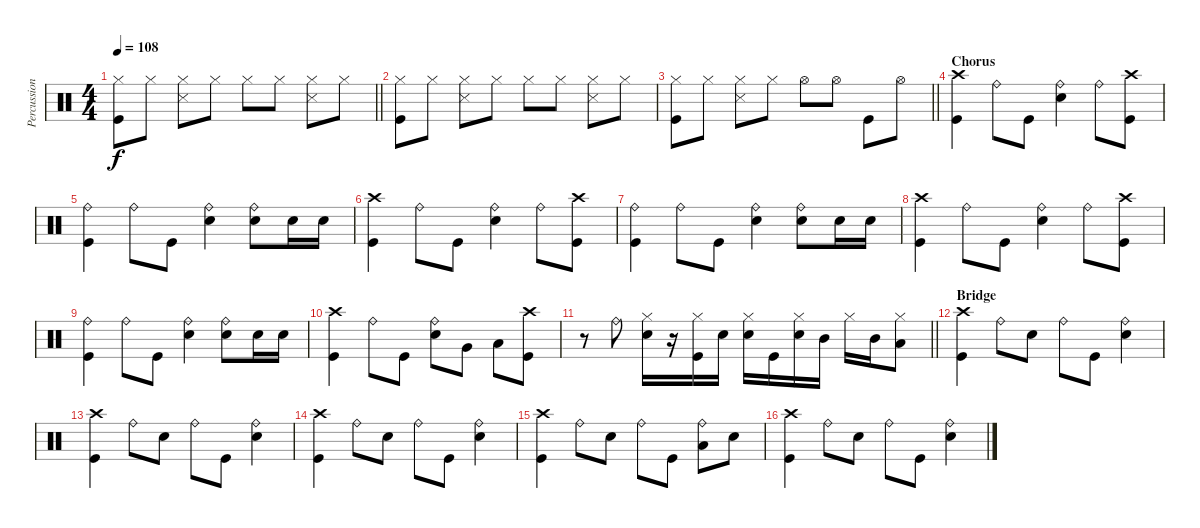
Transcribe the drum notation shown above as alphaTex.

\track ("Percussion" "Percussion") {instrument percussion}
\staff {score}
\articulation defaults
\ts (4 4)
\tempo 108
\clef neutral
\barLineRight lightlight
\ks c
("Hi-Hat (closed)" "Kick (hit)").8{dy f} "Hi-Hat (closed)".8 ("Hi-Hat (closed)" "Snare (side stick) 3").8 "Hi-Hat (closed)".8 "Hi-Hat (closed)".8 "Hi-Hat (closed)".8 ("Hi-Hat (closed)" "Snare (side stick) 3").8 "Hi-Hat (closed)".8 |
("Hi-Hat (closed)" "Kick (hit)").8 "Hi-Hat (closed)".8 ("Hi-Hat (closed)" "Snare (side stick) 3").8 "Hi-Hat (closed)".8 "Hi-Hat (closed)".8 "Hi-Hat (closed)".8 ("Hi-Hat (closed)" "Snare (side stick) 3").8 "Hi-Hat (closed)".8 |
\barLineRight lightlight
("Hi-Hat (closed)" "Kick (hit)").8 "Hi-Hat (closed)".8 ("Hi-Hat (closed)" "Snare (side stick) 3").8 "Hi-Hat (closed)".8 "Hi-Hat (open)".8 "Hi-Hat (open)".8 "Kick (hit)".8 "Hi-Hat (open)".8 |
\section ("" "Chorus")
("Crash high (hit)" "Kick (hit)").4 "Ride (bell)".8 "Kick (hit)".8 ("Ride (bell)" "Snare (hit) 2").4 "Ride (bell)".8 ("Crash high (hit)" "Kick (hit)").8 |
("Ride (bell)" "Kick (hit)").4 "Ride (bell)".8 "Kick (hit)".8 ("Ride (bell)" "Snare (hit) 2").4 ("Ride (bell)" "Snare (hit) 2").8 "Snare (hit) 2".16 "Snare (hit) 2".16 |
("Crash high (hit)" "Kick (hit)").4 "Ride (bell)".8 "Kick (hit)".8 ("Ride (bell)" "Snare (hit) 2").4 "Ride (bell)".8 ("Crash high (hit)" "Kick (hit)").8 |
("Ride (bell)" "Kick (hit)").4 "Ride (bell)".8 "Kick (hit)".8 ("Ride (bell)" "Snare (hit) 2").4 ("Ride (bell)" "Snare (hit) 2").8 "Snare (hit) 2".16 "Snare (hit) 2".16 |
("Crash high (hit)" "Kick (hit)").4 "Ride (bell)".8 "Kick (hit)".8 ("Ride (bell)" "Snare (hit) 2").4 "Ride (bell)".8 ("Crash high (hit)" "Kick (hit)").8 |
("Ride (bell)" "Kick (hit)").4 "Ride (bell)".8 "Kick (hit)".8 ("Ride (bell)" "Snare (hit) 2").4 ("Ride (bell)" "Snare (hit) 2").8 "Snare (hit) 2".16 "Snare (hit) 2".16 |
("Crash high (hit)" "Kick (hit)").4 "Ride (bell)".8 "Kick (hit)".8 ("Ride (bell)" "Snare (hit) 2").8 "Very Low Tom (hit)".8 "Low Floor Tom (hit)".8 ("Crash high (hit)" "Kick (hit)").8 |
\barLineRight lightlight
r.8 "Ride (bell)".8 ("Hi-Hat (closed)" "Snare (hit) 2").16 r.16 ("Hi-Hat (closed)" "Kick (hit)").16 "Snare (hit) 2".16 ("Hi-Hat (closed)" "Snare (hit) 2").16 "Kick (hit)".16 ("Hi-Hat (closed)" "Snare (hit) 2").16 "Mid Tom (hit)".16 "Hi-Hat (closed)".16 "Mid Tom (hit)".16 ("Hi-Hat (closed)" "Low Tom (hit)").8 |
\section ("" "Bridge")
("Crash high (hit)" "Kick (hit)").4 "Ride (bell)".8 "Snare (hit) 2".8 "Ride (bell)".8 "Kick (hit)".8 ("Ride (bell)" "Snare (hit) 2").4 |
("Crash high (hit)" "Kick (hit)").4 "Ride (bell)".8 "Snare (hit) 2".8 "Ride (bell)".8 "Kick (hit)".8 ("Ride (bell)" "Snare (hit) 2").4 |
("Crash high (hit)" "Kick (hit)").4 "Ride (bell)".8 "Snare (hit) 2".8 "Ride (bell)".8 "Kick (hit)".8 ("Ride (bell)" "Snare (hit) 2").4 |
("Crash high (hit)" "Kick (hit)").4 "Ride (bell)".8 "Snare (hit) 2".8 "Ride (bell)".8 "Kick (hit)".8 ("Ride (bell)" "Low Tom (hit)").8 "Snare (hit) 2".8 |
("Crash high (hit)" "Kick (hit)").4 "Ride (bell)".8 "Snare (hit) 2".8 "Ride (bell)".8 "Kick (hit)".8 ("Ride (bell)" "Snare (hit) 2").4
